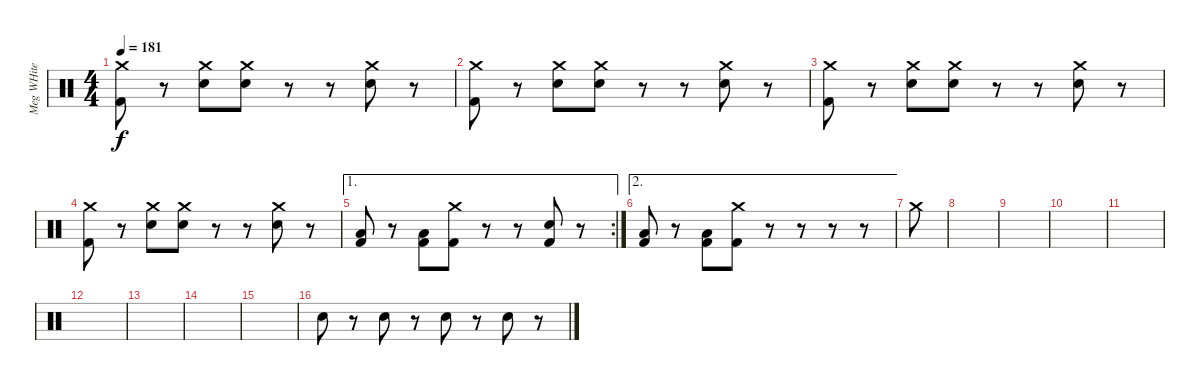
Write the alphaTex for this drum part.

\track ("Meg WHite" "Meg WHite") {instrument percussion}
\staff {score}
\articulation defaults
\ts (4 4)
\tempo 181
\clef neutral
\ks c
("Crash medium (hit)" "Kick (hit) 2").8{dy f} r.8 ("Crash medium (hit)" "Electric Snare (hit)").8 ("Crash medium (hit)" "Electric Snare (hit)").8 r.8 r.8 ("Crash medium (hit)" "Electric Snare (hit)").8 r.8 |
("Crash medium (hit)" "Kick (hit) 2").8 r.8 ("Crash medium (hit)" "Electric Snare (hit)").8 ("Crash medium (hit)" "Electric Snare (hit)").8 r.8 r.8 ("Crash medium (hit)" "Electric Snare (hit)").8 r.8 |
("Crash medium (hit)" "Kick (hit) 2").8 r.8 ("Crash medium (hit)" "Electric Snare (hit)").8 ("Crash medium (hit)" "Electric Snare (hit)").8 r.8 r.8 ("Crash medium (hit)" "Electric Snare (hit)").8 r.8 |
("Crash medium (hit)" "Kick (hit) 2").8 r.8 ("Crash medium (hit)" "Electric Snare (hit)").8 ("Crash medium (hit)" "Electric Snare (hit)").8 r.8 r.8 ("Crash medium (hit)" "Electric Snare (hit)").8 r.8 |
\ae 1
\rc 2
("Kick (hit) 2" "Low Floor Tom (hit)").8 r.8 ("Kick (hit) 2" "Low Floor Tom (hit)").8 ("Crash medium (hit)" "Kick (hit) 2").8 r.8 r.8 ("Electric Snare (hit)" "Kick (hit) 2").8 r.8 |
\ae 2
("Kick (hit) 2" "Low Floor Tom (hit)").8 r.8 ("Kick (hit) 2" "Low Floor Tom (hit)").8 ("Crash medium (hit)" "Kick (hit) 2").8 r.8 r.8 r.8 r.8 |
"Crash medium (hit)".8 |
|
|
|
|
|
|
|
|
"Electric Snare (hit)".8 r.8 "Electric Snare (hit)".8 r.8 "Electric Snare (hit)".8 r.8 "Electric Snare (hit)".8 r.8
